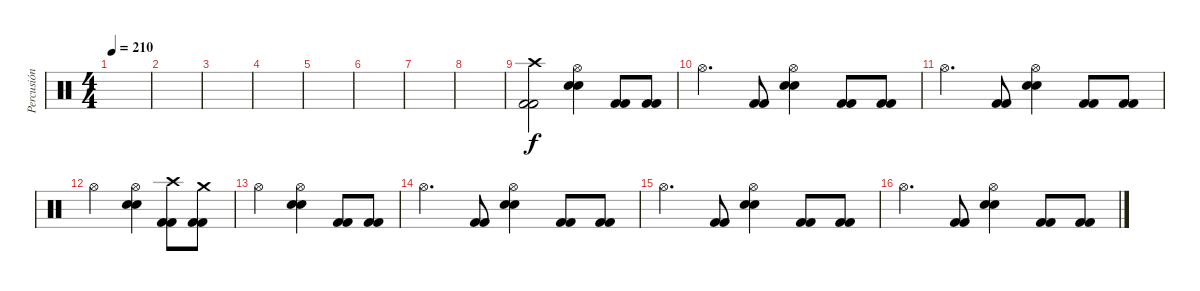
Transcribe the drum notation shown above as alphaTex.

\track ("Percusión" "Percusión") {instrument percussion}
\staff {score}
\articulation defaults
\ts (4 4)
\tempo 210
\clef neutral
\ks c
|
|
|
|
|
|
|
|
("Kick (hit) 2" "Kick (hit) 2" "Crash high (hit)").2 ("Electric Snare (hit)" "Electric Snare (hit)" "Hi-Hat (open)").4 ("Kick (hit) 2" "Kick (hit) 2").8 ("Kick (hit) 2" "Kick (hit) 2").8 |
"Hi-Hat (open)".4{d} ("Kick (hit) 2" "Kick (hit) 2").8 ("Electric Snare (hit)" "Electric Snare (hit)" "Hi-Hat (open)").4 ("Kick (hit) 2" "Kick (hit) 2").8 ("Kick (hit) 2" "Kick (hit) 2").8 |
"Hi-Hat (open)".4{d} ("Kick (hit) 2" "Kick (hit) 2").8 ("Electric Snare (hit)" "Electric Snare (hit)" "Hi-Hat (open)").4 ("Kick (hit) 2" "Kick (hit) 2").8 ("Kick (hit) 2" "Kick (hit) 2").8 |
"Hi-Hat (open)".2 ("Electric Snare (hit)" "Electric Snare (hit)" "Hi-Hat (open)").4 ("Kick (hit) 2" "Kick (hit) 2" "Crash high (hit)").8 ("Kick (hit) 2" "Kick (hit) 2" "Crash medium (hit)").8 |
"Hi-Hat (open)".2 ("Electric Snare (hit)" "Electric Snare (hit)" "Hi-Hat (open)").4 ("Kick (hit) 2" "Kick (hit) 2").8 ("Kick (hit) 2" "Kick (hit) 2").8 |
"Hi-Hat (open)".4{d} ("Kick (hit) 2" "Kick (hit) 2").8 ("Electric Snare (hit)" "Electric Snare (hit)" "Hi-Hat (open)").4 ("Kick (hit) 2" "Kick (hit) 2").8 ("Kick (hit) 2" "Kick (hit) 2").8 |
"Hi-Hat (open)".4{d} ("Kick (hit) 2" "Kick (hit) 2").8 ("Electric Snare (hit)" "Electric Snare (hit)" "Hi-Hat (open)").4 ("Kick (hit) 2" "Kick (hit) 2").8 ("Kick (hit) 2" "Kick (hit) 2").8 |
"Hi-Hat (open)".4{d} ("Kick (hit) 2" "Kick (hit) 2").8 ("Electric Snare (hit)" "Electric Snare (hit)" "Hi-Hat (open)").4 ("Kick (hit) 2" "Kick (hit) 2").8 ("Kick (hit) 2" "Kick (hit) 2").8
